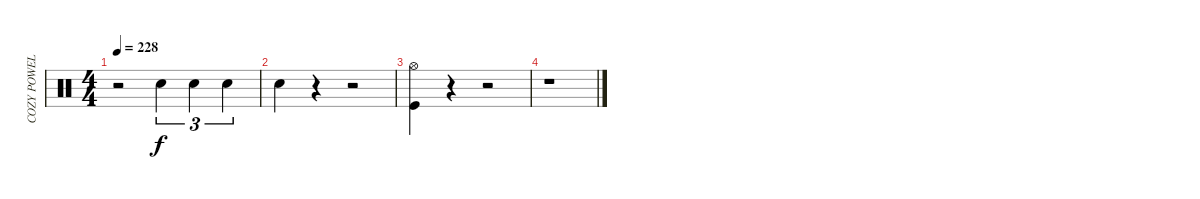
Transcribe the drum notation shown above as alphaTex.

\track ("COZY POWELL" "COZY POWEL") {instrument percussion}
\staff {score}
\articulation defaults
\ts (4 4)
\tempo 228
\clef neutral
\ks c
r.2{dy f} "Snare (hit) 2".4{tu (3 2)} "Snare (hit) 2".4{tu (3 2)} "Snare (hit) 2".4{tu (3 2)} |
"Snare (hit) 2".4 r.4 r.2 |
("Hi-Hat (open)" "Kick (hit)").4 r.4 r.2 |
r.1
